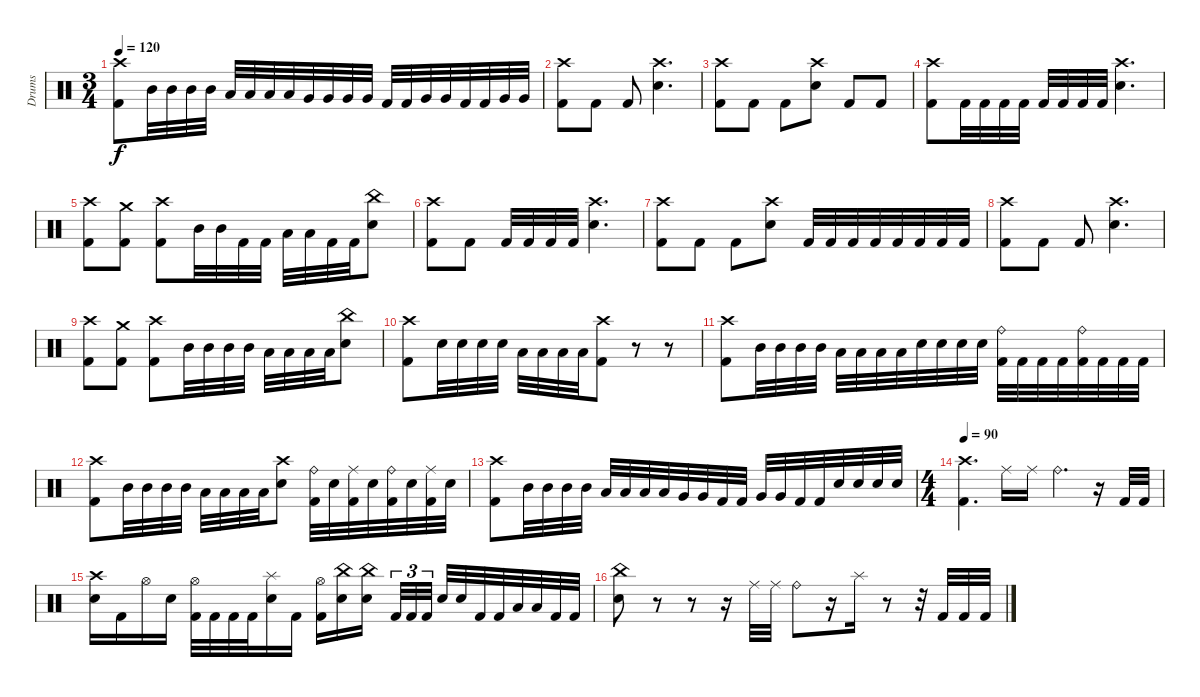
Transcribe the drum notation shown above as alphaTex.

\track ("Drums" "Drums") {instrument percussion}
\staff {score}
\articulation defaults
\ts (3 4)
\tempo 120
\clef neutral
\ks c
("Crash high (hit)" "Kick (hit) 2").8{dy f} "Mid Tom (hit)".32 "Mid Tom (hit)".32 "Mid Tom (hit)".32 "Mid Tom (hit)".32 "Low Tom (hit)".32 "Low Tom (hit)".32 "Low Tom (hit)".32 "Low Tom (hit)".32 "Very Low Tom (hit)".32 "Very Low Tom (hit)".32 "Very Low Tom (hit)".32 "Very Low Tom (hit)".32 "Kick (hit) 2".32 "Kick (hit) 2".32 "Very Low Tom (hit)".32 "Very Low Tom (hit)".32 "Kick (hit) 2".32 "Kick (hit) 2".32 "Very Low Tom (hit)".32 "Very Low Tom (hit)".32 |
("Crash high (hit)" "Kick (hit) 2").8 "Kick (hit) 2".8 "Kick (hit) 2".8 ("Crash high (hit)" "Electric Snare (hit)").4{d} |
("Crash high (hit)" "Kick (hit) 2").8 "Kick (hit) 2".8 "Kick (hit) 2".8 ("Crash high (hit)" "Electric Snare (hit)").8 "Kick (hit) 2".8 "Kick (hit) 2".8 |
("Crash high (hit)" "Kick (hit) 2").8 "Kick (hit) 2".32 "Kick (hit) 2".32 "Kick (hit) 2".32 "Kick (hit) 2".32 "Kick (hit) 2".32 "Kick (hit) 2".32 "Kick (hit) 2".32 "Kick (hit) 2".32 ("Crash high (hit)" "Electric Snare (hit)").4{d} |
("Crash high (hit)" "Kick (hit) 2").8 ("Crash medium (hit)" "Kick (hit) 2").8 ("Crash high (hit)" "Kick (hit) 2").8 "Mid Tom (hit)".32 "Mid Tom (hit)".32 "Kick (hit) 2".32 "Kick (hit) 2".32 "Low Tom (hit)".32 "Low Tom (hit)".32 "Kick (hit) 2".32 "Kick (hit) 2".32 ("China (hit)" "Electric Snare (hit)").8 |
("Crash high (hit)" "Kick (hit) 2").8 "Kick (hit) 2".8 "Kick (hit) 2".32 "Kick (hit) 2".32 "Kick (hit) 2".32 "Kick (hit) 2".32 ("Crash high (hit)" "Electric Snare (hit)").4{d} |
("Crash high (hit)" "Kick (hit) 2").8 "Kick (hit) 2".8 "Kick (hit) 2".8 ("Crash high (hit)" "Electric Snare (hit)").8 "Kick (hit) 2".32 "Kick (hit) 2".32 "Kick (hit) 2".32 "Kick (hit) 2".32 "Kick (hit) 2".32 "Kick (hit) 2".32 "Kick (hit) 2".32 "Kick (hit) 2".32 |
("Crash high (hit)" "Kick (hit) 2").8 "Kick (hit) 2".8 "Kick (hit) 2".8 ("Crash high (hit)" "Electric Snare (hit)").4{d} |
("Crash high (hit)" "Kick (hit) 2").8 ("Crash medium (hit)" "Kick (hit) 2").8 ("Crash high (hit)" "Kick (hit) 2").8 "Mid Tom (hit)".32 "Mid Tom (hit)".32 "Mid Tom (hit)".32 "Mid Tom (hit)".32 "Low Tom (hit)".32 "Low Tom (hit)".32 "Low Tom (hit)".32 "Low Tom (hit)".32 ("China (hit)" "Electric Snare (hit)").8 |
("Crash high (hit)" "Kick (hit) 2").8 "Electric Snare (hit)".32 "Electric Snare (hit)".32 "Electric Snare (hit)".32 "Electric Snare (hit)".32 "Low Tom (hit)".32 "Low Tom (hit)".32 "Low Tom (hit)".32 "Low Tom (hit)".32 ("Crash high (hit)" "Kick (hit) 2").8 r.8 r.8 |
("Crash high (hit)" "Kick (hit) 2").8 "Mid Tom (hit)".32 "Mid Tom (hit)".32 "Mid Tom (hit)".32 "Mid Tom (hit)".32 "Low Tom (hit)".32 "Low Tom (hit)".32 "Low Tom (hit)".32 "Low Tom (hit)".32 "Electric Snare (hit)".32 "Electric Snare (hit)".32 "Electric Snare (hit)".32 "Electric Snare (hit)".32 ("Ride (bell)" "Kick (hit) 2").32 "Kick (hit) 2".32 "Kick (hit) 2".32 "Kick (hit) 2".32 ("Ride (bell)" "Kick (hit) 2").32 "Kick (hit) 2".32 "Kick (hit) 2".32 "Kick (hit) 2".32 |
("Crash high (hit)" "Kick (hit) 2").8 "Mid Tom (hit)".32 "Mid Tom (hit)".32 "Mid Tom (hit)".32 "Mid Tom (hit)".32 "Low Tom (hit)".32 "Low Tom (hit)".32 "Low Tom (hit)".32 "Low Tom (hit)".32 ("Crash high (hit)" "Electric Snare (hit)").8 ("Ride (bell)" "Kick (hit) 2").32 "Electric Snare (hit)".32 ("Ride (middle)" "Kick (hit) 2").32 "Electric Snare (hit)".32 ("Ride (bell)" "Kick (hit) 2").32 "Electric Snare (hit)".32 ("Ride (middle)" "Kick (hit) 2").32 "Electric Snare (hit)".32 |
("Crash high (hit)" "Kick (hit) 2").8 "Mid Tom (hit)".32 "Mid Tom (hit)".32 "Mid Tom (hit)".32 "Mid Tom (hit)".32 "Low Tom (hit)".32 "Low Tom (hit)".32 "Low Tom (hit)".32 "Low Tom (hit)".32 "Very Low Tom (hit)".32 "Very Low Tom (hit)".32 "Kick (hit) 2".32 "Kick (hit) 2".32 "Very Low Tom (hit)".32 "Very Low Tom (hit)".32 "Kick (hit) 2".32 "Kick (hit) 2".32 "Electric Snare (hit)".32 "Electric Snare (hit)".32 "Electric Snare (hit)".32 "Electric Snare (hit)".32 |
\ts (4 4)
\tempo 90
("Crash high (hit)" "Kick (hit) 2").4{d} "Ride (middle)".16 "Ride (middle)".16 "Ride (bell)".4{d} r.16 "Kick (hit) 2".32 "Kick (hit) 2".32 |
("Crash high (hit)" "Electric Snare (hit)").16 "Kick (hit) 2".16 "Hi-Hat (open)".16 "Electric Snare (hit)".16 ("Hi-Hat (open)" "Kick (hit) 2").32 "Kick (hit) 2".32 "Kick (hit) 2".32 "Kick (hit) 2".32 ("Splash (hit)" "Electric Snare (hit)").16 "Kick (hit) 2".16 ("Hi-Hat (open)" "Kick (hit) 2").16 ("China (hit)" "Electric Snare (hit)").16 ("China (hit)" "Electric Snare (hit)").16{beam splitsecondary} "Kick (hit) 2".32{tu (3 2)} "Kick (hit) 2".32{tu (3 2)} "Kick (hit) 2".32{tu (3 2)} "Electric Snare (hit)".32 "Electric Snare (hit)".32 "Kick (hit) 2".32 "Kick (hit) 2".32 "Low Tom (hit)".32 "Low Tom (hit)".32 "Kick (hit) 2".32 "Kick (hit) 2".32 |
("China (hit)" "Electric Snare (hit)").8 r.8 r.8 r.16 "Ride (middle)".32 "Ride (middle)".32 "Ride (bell)".8 r.16 "Splash (hit)".16 r.8 r.32 "Kick (hit) 2".32 "Kick (hit) 2".32 "Kick (hit) 2".32
